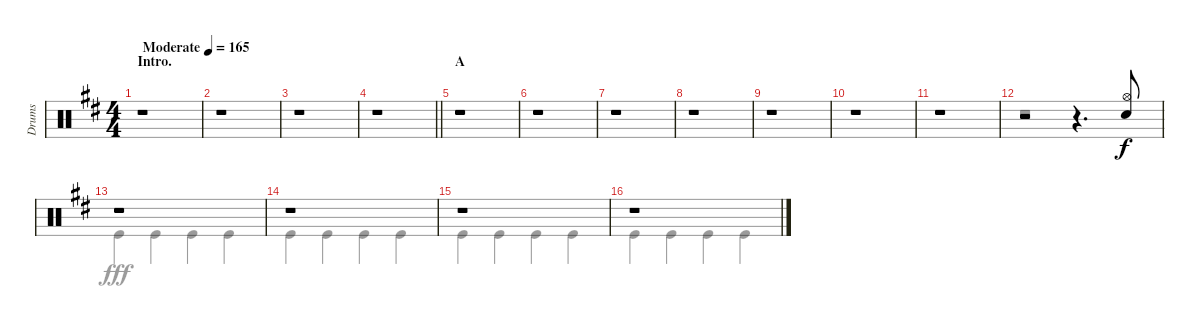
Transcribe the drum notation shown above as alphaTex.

\track ("Drums" "Drums") {instrument percussion}
\staff {score}
\articulation defaults
\voice
\ts (4 4)
\section ("" "Intro.")
\tempo (165 "Moderate")
\clef neutral
\ks d
r.1{dy f} |
r.1 |
r.1 |
\barLineRight lightlight
r.1 |
\section ("" "A")
r.1 |
r.1 |
r.1 |
r.1 |
r.1 |
r.1 |
r.1 |
r.2 r.4{d} ("Hi-Hat (open)" "Snare (hit) 2").8 |
r.1 |
r.1 |
r.1 |
r.1
\voice
\clef neutral
\ottava regular
\simile none
\ks d
r.1{dy fff} |
r.1 |
r.1 |
\barLineRight lightlight
r.1 |
r.1 |
r.1 |
r.1 |
r.1 |
r.1 |
r.1 |
r.1 |
r.1 |
"Kick (hit)".4 "Kick (hit)".4 "Kick (hit)".4 "Kick (hit)".4 |
"Kick (hit)".4 "Kick (hit)".4 "Kick (hit)".4 "Kick (hit)".4 |
"Kick (hit)".4 "Kick (hit)".4 "Kick (hit)".4 "Kick (hit)".4 |
"Kick (hit)".4 "Kick (hit)".4 "Kick (hit)".4 "Kick (hit)".4
